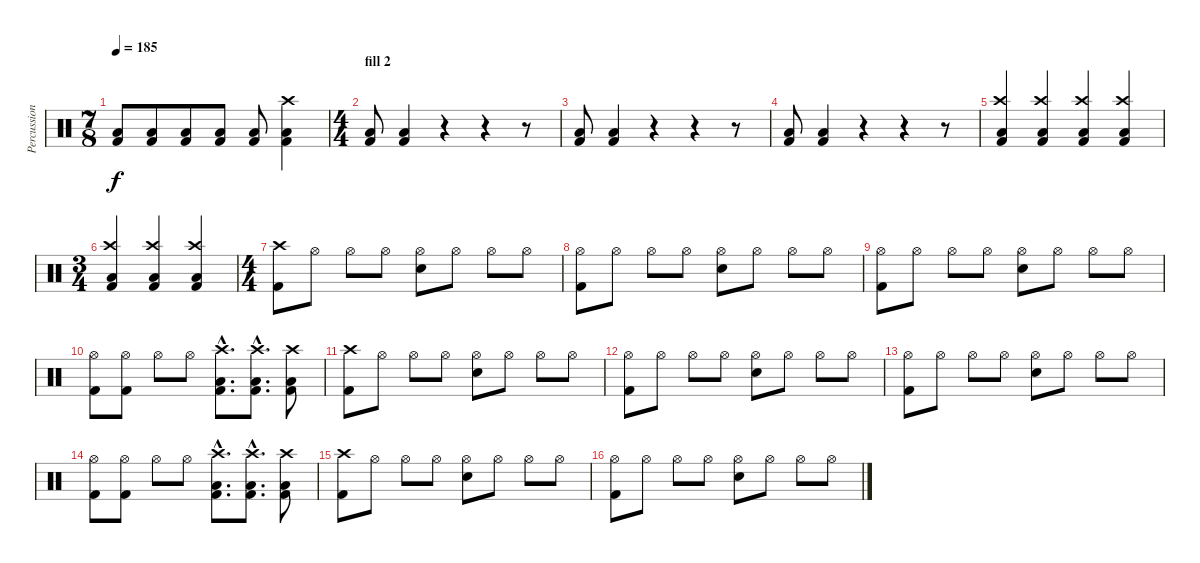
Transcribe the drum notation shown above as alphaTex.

\track ("Percussion" "Percussion") {instrument percussion}
\staff {score}
\articulation defaults
\ts (7 8)
\tempo 185
\clef neutral
\ks c
("Low Tom (hit)" "Kick (hit) 2").8{dy f} ("Low Tom (hit)" "Kick (hit) 2").8 ("Low Tom (hit)" "Kick (hit) 2").8 ("Low Tom (hit)" "Kick (hit) 2").8 ("Low Tom (hit)" "Kick (hit) 2").8 ("Crash high (hit)" "Low Tom (hit)" "Kick (hit) 2").4 |
\ts (4 4)
\section ("" "fill 2")
("Low Floor Tom (hit)" "Kick (hit) 2").8 ("Low Floor Tom (hit)" "Kick (hit) 2").4 r.4 r.4 r.8 |
("Low Floor Tom (hit)" "Kick (hit) 2").8 ("Low Floor Tom (hit)" "Kick (hit) 2").4 r.4 r.4 r.8 |
("Low Floor Tom (hit)" "Kick (hit) 2").8 ("Low Floor Tom (hit)" "Kick (hit) 2").4 r.4 r.4 r.8 |
("Crash high (hit)" "Low Floor Tom (hit)" "Kick (hit) 2").4 ("Crash high (hit)" "Low Floor Tom (hit)" "Kick (hit) 2").4 ("Crash high (hit)" "Low Floor Tom (hit)" "Kick (hit) 2").4 ("Crash high (hit)" "Low Floor Tom (hit)" "Kick (hit) 2").4 |
\ts (3 4)
("Crash high (hit)" "Low Floor Tom (hit)" "Kick (hit) 2").4 ("Crash high (hit)" "Low Floor Tom (hit)" "Kick (hit) 2").4 ("Crash high (hit)" "Low Floor Tom (hit)" "Kick (hit) 2").4 |
\ts (4 4)
("Crash high (hit)" "Kick (hit) 2").8 "Hi-Hat (open)".8 "Hi-Hat (open)".8 "Hi-Hat (open)".8 ("Hi-Hat (open)" "Snare (hit) 2").8 "Hi-Hat (open)".8 "Hi-Hat (open)".8 "Hi-Hat (open)".8 |
("Hi-Hat (open)" "Kick (hit) 2").8 "Hi-Hat (open)".8 "Hi-Hat (open)".8 "Hi-Hat (open)".8 ("Hi-Hat (open)" "Snare (hit) 2").8 "Hi-Hat (open)".8 "Hi-Hat (open)".8 "Hi-Hat (open)".8 |
("Hi-Hat (open)" "Kick (hit) 2").8 "Hi-Hat (open)".8 "Hi-Hat (open)".8 "Hi-Hat (open)".8 ("Hi-Hat (open)" "Snare (hit) 2").8 "Hi-Hat (open)".8 "Hi-Hat (open)".8 "Hi-Hat (open)".8 |
("Hi-Hat (open)" "Kick (hit) 2").8 ("Hi-Hat (open)" "Kick (hit) 2").8 "Hi-Hat (open)".8 "Hi-Hat (open)".8 ("Crash high (hit)"{hac} "Low Tom (hit)"{hac} "Kick (hit) 2"{hac}).8{d} ("Crash high (hit)"{hac} "Low Tom (hit)"{hac} "Kick (hit) 2"{hac}).8{d} ("Crash high (hit)" "Low Tom (hit)" "Kick (hit) 2").8 |
("Crash high (hit)" "Kick (hit) 2").8 "Hi-Hat (open)".8 "Hi-Hat (open)".8 "Hi-Hat (open)".8 ("Hi-Hat (open)" "Snare (hit) 2").8 "Hi-Hat (open)".8 "Hi-Hat (open)".8 "Hi-Hat (open)".8 |
("Hi-Hat (open)" "Kick (hit) 2").8 "Hi-Hat (open)".8 "Hi-Hat (open)".8 "Hi-Hat (open)".8 ("Hi-Hat (open)" "Snare (hit) 2").8 "Hi-Hat (open)".8 "Hi-Hat (open)".8 "Hi-Hat (open)".8 |
("Hi-Hat (open)" "Kick (hit) 2").8 "Hi-Hat (open)".8 "Hi-Hat (open)".8 "Hi-Hat (open)".8 ("Hi-Hat (open)" "Snare (hit) 2").8 "Hi-Hat (open)".8 "Hi-Hat (open)".8 "Hi-Hat (open)".8 |
("Hi-Hat (open)" "Kick (hit) 2").8 ("Hi-Hat (open)" "Kick (hit) 2").8 "Hi-Hat (open)".8 "Hi-Hat (open)".8 ("Crash high (hit)"{hac} "Low Tom (hit)"{hac} "Kick (hit) 2"{hac}).8{d} ("Crash high (hit)"{hac} "Low Tom (hit)"{hac} "Kick (hit) 2"{hac}).8{d} ("Crash high (hit)" "Low Tom (hit)" "Kick (hit) 2").8 |
("Crash high (hit)" "Kick (hit) 2").8 "Hi-Hat (open)".8 "Hi-Hat (open)".8 "Hi-Hat (open)".8 ("Hi-Hat (open)" "Snare (hit) 2").8 "Hi-Hat (open)".8 "Hi-Hat (open)".8 "Hi-Hat (open)".8 |
("Hi-Hat (open)" "Kick (hit) 2").8 "Hi-Hat (open)".8 "Hi-Hat (open)".8 "Hi-Hat (open)".8 ("Hi-Hat (open)" "Snare (hit) 2").8 "Hi-Hat (open)".8 "Hi-Hat (open)".8 "Hi-Hat (open)".8
